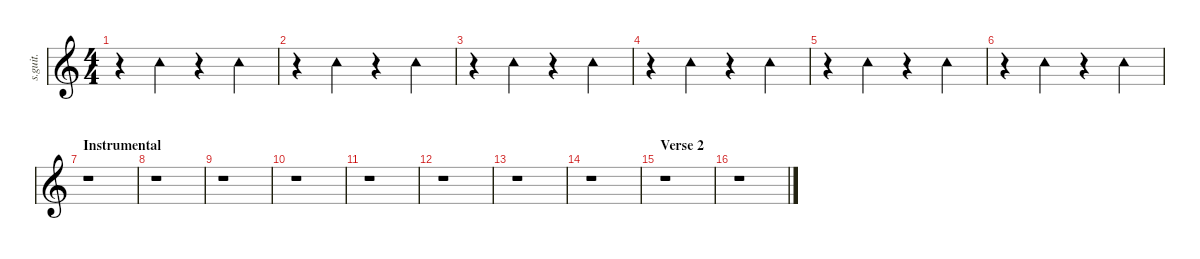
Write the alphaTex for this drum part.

\defaultSystemsLayout 4
\hideDynamics
\bracketExtendMode nobrackets
\track ("Studio" "s.guit.") {instrument percussion}
\staff {score}
\articulation defaults
\ts (4 4)
\tempo (149 hide)
\clef g2
\ks c
r.4{dy mp} "Tambourine (hit)".4{lyrics (0 "") lyrics (1 "") lyrics (2 "") lyrics (3 "") lyrics (4 "")} r.4 "Tambourine (hit)".4{lyrics (0 "") lyrics (1 "") lyrics (2 "") lyrics (3 "") lyrics (4 "")} |
r.4 "Tambourine (hit)".4{lyrics (0 "") lyrics (1 "") lyrics (2 "") lyrics (3 "") lyrics (4 "")} r.4 "Tambourine (hit)".4{lyrics (0 "") lyrics (1 "") lyrics (2 "") lyrics (3 "") lyrics (4 "")} |
r.4 "Tambourine (hit)".4{lyrics (0 "") lyrics (1 "") lyrics (2 "") lyrics (3 "") lyrics (4 "")} r.4 "Tambourine (hit)".4{lyrics (0 "") lyrics (1 "") lyrics (2 "") lyrics (3 "") lyrics (4 "")} |
r.4 "Tambourine (hit)".4{lyrics (0 "") lyrics (1 "") lyrics (2 "") lyrics (3 "") lyrics (4 "")} r.4 "Tambourine (hit)".4{lyrics (0 "") lyrics (1 "") lyrics (2 "") lyrics (3 "") lyrics (4 "")} |
r.4 "Tambourine (hit)".4{lyrics (0 "") lyrics (1 "") lyrics (2 "") lyrics (3 "") lyrics (4 "")} r.4 "Tambourine (hit)".4{lyrics (0 "") lyrics (1 "") lyrics (2 "") lyrics (3 "") lyrics (4 "")} |
r.4 "Tambourine (hit)".4{lyrics (0 "") lyrics (1 "") lyrics (2 "") lyrics (3 "") lyrics (4 "")} r.4 "Tambourine (hit)".4{lyrics (0 "") lyrics (1 "") lyrics (2 "") lyrics (3 "") lyrics (4 "")} |
\section ("" "Instrumental")
r.1 |
r.1 |
r.1 |
r.1 |
r.1 |
r.1 |
r.1 |
r.1 |
\section ("" "Verse 2")
r.1 |
r.1
